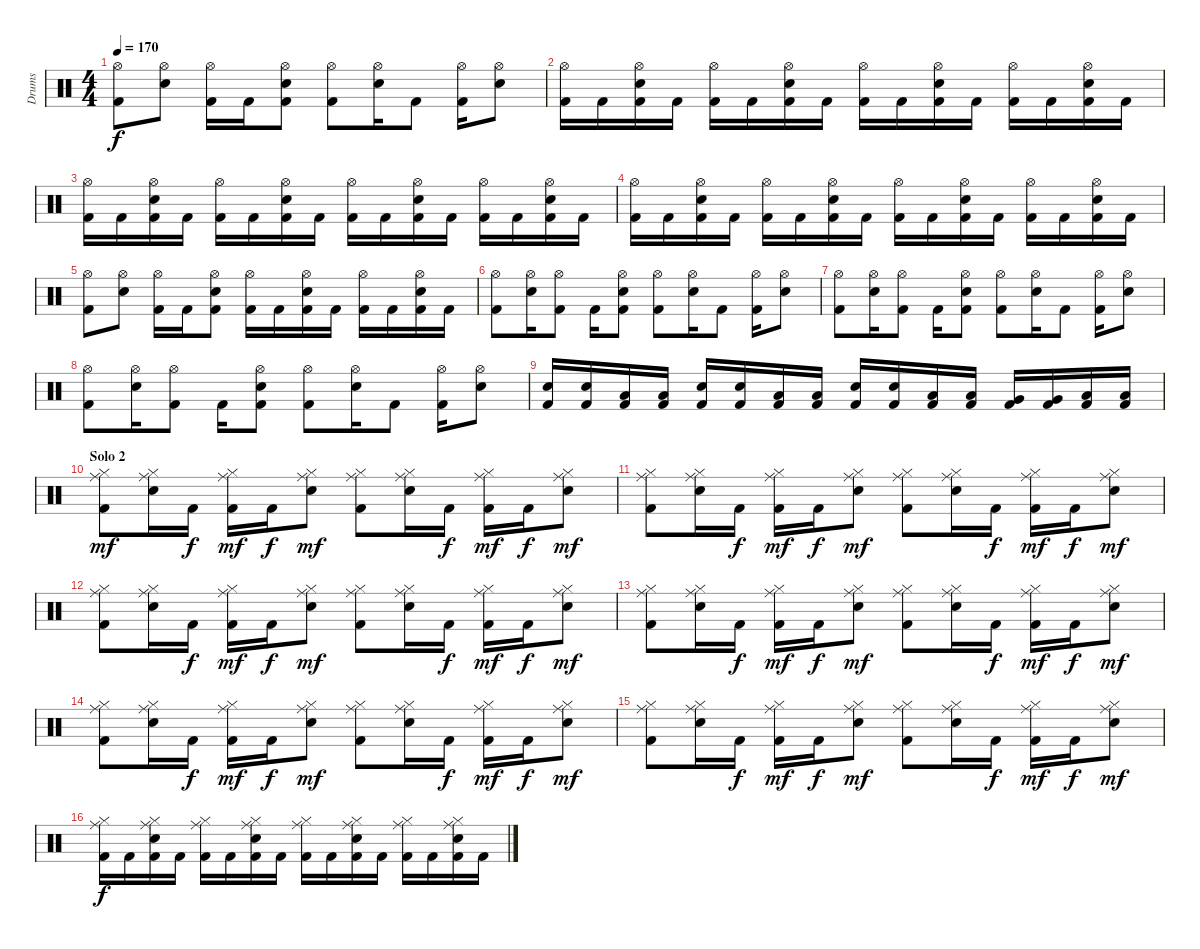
\track ("Drums" "Drums") {instrument percussion}
\staff {score}
\articulation defaults
\ts (4 4)
\tempo 170
\clef neutral
\ks c
("Hi-Hat (open)" "Kick (hit) 2").8{dy f} ("Hi-Hat (open)" "Snare (hit) 2").8 ("Hi-Hat (open)" "Kick (hit) 2").16 "Kick (hit) 2".16 ("Hi-Hat (open)" "Snare (hit) 2" "Kick (hit) 2").8 ("Hi-Hat (open)" "Kick (hit) 2").8 ("Hi-Hat (open)" "Snare (hit) 2").16 "Kick (hit) 2".8 ("Hi-Hat (open)" "Kick (hit) 2").16 ("Hi-Hat (open)" "Snare (hit) 2").8 |
("Hi-Hat (open)" "Kick (hit) 2").16 "Kick (hit) 2".16 ("Hi-Hat (open)" "Snare (hit) 2" "Kick (hit) 2").16 "Kick (hit) 2".16 ("Hi-Hat (open)" "Kick (hit) 2").16 "Kick (hit) 2".16 ("Hi-Hat (open)" "Snare (hit) 2" "Kick (hit) 2").16 "Kick (hit) 2".16 ("Hi-Hat (open)" "Kick (hit) 2").16 "Kick (hit) 2".16 ("Hi-Hat (open)" "Snare (hit) 2" "Kick (hit) 2").16 "Kick (hit) 2".16 ("Hi-Hat (open)" "Kick (hit) 2").16 "Kick (hit) 2".16 ("Hi-Hat (open)" "Snare (hit) 2" "Kick (hit) 2").16 "Kick (hit) 2".16 |
("Hi-Hat (open)" "Kick (hit) 2").16 "Kick (hit) 2".16 ("Hi-Hat (open)" "Snare (hit) 2" "Kick (hit) 2").16 "Kick (hit) 2".16 ("Hi-Hat (open)" "Kick (hit) 2").16 "Kick (hit) 2".16 ("Hi-Hat (open)" "Snare (hit) 2" "Kick (hit) 2").16 "Kick (hit) 2".16 ("Hi-Hat (open)" "Kick (hit) 2").16 "Kick (hit) 2".16 ("Hi-Hat (open)" "Snare (hit) 2" "Kick (hit) 2").16 "Kick (hit) 2".16 ("Hi-Hat (open)" "Kick (hit) 2").16 "Kick (hit) 2".16 ("Hi-Hat (open)" "Snare (hit) 2" "Kick (hit) 2").16 "Kick (hit) 2".16 |
("Hi-Hat (open)" "Kick (hit) 2").16 "Kick (hit) 2".16 ("Hi-Hat (open)" "Snare (hit) 2" "Kick (hit) 2").16 "Kick (hit) 2".16 ("Hi-Hat (open)" "Kick (hit) 2").16 "Kick (hit) 2".16 ("Hi-Hat (open)" "Snare (hit) 2" "Kick (hit) 2").16 "Kick (hit) 2".16 ("Hi-Hat (open)" "Kick (hit) 2").16 "Kick (hit) 2".16 ("Hi-Hat (open)" "Snare (hit) 2" "Kick (hit) 2").16 "Kick (hit) 2".16 ("Hi-Hat (open)" "Kick (hit) 2").16 "Kick (hit) 2".16 ("Hi-Hat (open)" "Snare (hit) 2" "Kick (hit) 2").16 "Kick (hit) 2".16 |
("Hi-Hat (open)" "Kick (hit) 2").8 ("Hi-Hat (open)" "Snare (hit) 2").8 ("Hi-Hat (open)" "Kick (hit) 2").16 "Kick (hit) 2".16 ("Hi-Hat (open)" "Snare (hit) 2" "Kick (hit) 2").8 ("Hi-Hat (open)" "Kick (hit) 2").16 "Kick (hit) 2".16 ("Hi-Hat (open)" "Snare (hit) 2" "Kick (hit) 2").16 "Kick (hit) 2".16 ("Hi-Hat (open)" "Kick (hit) 2").16 "Kick (hit) 2".16 ("Hi-Hat (open)" "Snare (hit) 2" "Kick (hit) 2").16 "Kick (hit) 2".16 |
("Hi-Hat (open)" "Kick (hit) 2").8 ("Hi-Hat (open)" "Snare (hit) 2").16 ("Hi-Hat (open)" "Kick (hit) 2").8 "Kick (hit) 2".16 ("Hi-Hat (open)" "Snare (hit) 2" "Kick (hit) 2").8 ("Hi-Hat (open)" "Kick (hit) 2").8 ("Hi-Hat (open)" "Snare (hit) 2").16 "Kick (hit) 2".8 ("Hi-Hat (open)" "Kick (hit) 2").16 ("Hi-Hat (open)" "Snare (hit) 2").8 |
("Hi-Hat (open)" "Kick (hit) 2").8 ("Hi-Hat (open)" "Snare (hit) 2").16 ("Hi-Hat (open)" "Kick (hit) 2").8 "Kick (hit) 2".16 ("Hi-Hat (open)" "Snare (hit) 2" "Kick (hit) 2").8 ("Hi-Hat (open)" "Kick (hit) 2").8 ("Hi-Hat (open)" "Snare (hit) 2").16 "Kick (hit) 2".8 ("Hi-Hat (open)" "Kick (hit) 2").16 ("Hi-Hat (open)" "Snare (hit) 2").8 |
("Hi-Hat (open)" "Kick (hit) 2").8 ("Hi-Hat (open)" "Snare (hit) 2").16 ("Hi-Hat (open)" "Kick (hit) 2").8 "Kick (hit) 2".16 ("Hi-Hat (open)" "Snare (hit) 2" "Kick (hit) 2").8 ("Hi-Hat (open)" "Kick (hit) 2").8 ("Hi-Hat (open)" "Snare (hit) 2").16 "Kick (hit) 2".8 ("Hi-Hat (open)" "Kick (hit) 2").16 ("Hi-Hat (open)" "Snare (hit) 2").8 |
("Snare (hit) 2" "Kick (hit) 2").16 ("Snare (hit) 2" "Kick (hit) 2").16 ("Low Floor Tom (hit)" "Kick (hit) 2").16 ("Low Floor Tom (hit)" "Kick (hit) 2").16 ("Snare (hit) 2" "Kick (hit) 2").16 ("Snare (hit) 2" "Kick (hit) 2").16 ("Low Floor Tom (hit)" "Kick (hit) 2").16 ("Low Floor Tom (hit)" "Kick (hit) 2").16 ("Snare (hit) 2" "Kick (hit) 2").16 ("Snare (hit) 2" "Kick (hit) 2").16 ("Low Tom (hit)" "Kick (hit) 2").16 ("Low Tom (hit)" "Kick (hit) 2").16 ("Very Low Tom (hit)" "Kick (hit) 2").16 ("Very Low Tom (hit)" "Kick (hit) 2").16 ("Low Floor Tom (hit)" "Kick (hit) 2").16 ("Low Floor Tom (hit)" "Kick (hit) 2").16 |
\section ("" "Solo 2")
("Hi-Hat (closed)" "Ride (middle)" "Kick (hit) 2").8{dy mf} ("Hi-Hat (closed)" "Ride (middle)" "Snare (hit) 2").16 "Kick (hit) 2".16{dy f} ("Hi-Hat (closed)" "Ride (middle)" "Kick (hit) 2").16{dy mf} "Kick (hit) 2".16{dy f} ("Hi-Hat (closed)" "Ride (middle)" "Snare (hit) 2").8{dy mf} ("Hi-Hat (closed)" "Ride (middle)" "Kick (hit) 2").8 ("Hi-Hat (closed)" "Ride (middle)" "Snare (hit) 2").16 "Kick (hit) 2".16{dy f} ("Hi-Hat (closed)" "Ride (middle)" "Kick (hit) 2").16{dy mf} "Kick (hit) 2".16{dy f} ("Hi-Hat (closed)" "Ride (middle)" "Snare (hit) 2").8{dy mf} |
("Hi-Hat (closed)" "Ride (middle)" "Kick (hit) 2").8 ("Hi-Hat (closed)" "Ride (middle)" "Snare (hit) 2").16 "Kick (hit) 2".16{dy f} ("Hi-Hat (closed)" "Ride (middle)" "Kick (hit) 2").16{dy mf} "Kick (hit) 2".16{dy f} ("Hi-Hat (closed)" "Ride (middle)" "Snare (hit) 2").8{dy mf} ("Hi-Hat (closed)" "Ride (middle)" "Kick (hit) 2").8 ("Hi-Hat (closed)" "Ride (middle)" "Snare (hit) 2").16 "Kick (hit) 2".16{dy f} ("Hi-Hat (closed)" "Ride (middle)" "Kick (hit) 2").16{dy mf} "Kick (hit) 2".16{dy f} ("Hi-Hat (closed)" "Ride (middle)" "Snare (hit) 2").8{dy mf} |
("Hi-Hat (closed)" "Ride (middle)" "Kick (hit) 2").8 ("Hi-Hat (closed)" "Ride (middle)" "Snare (hit) 2").16 "Kick (hit) 2".16{dy f} ("Hi-Hat (closed)" "Ride (middle)" "Kick (hit) 2").16{dy mf} "Kick (hit) 2".16{dy f} ("Hi-Hat (closed)" "Ride (middle)" "Snare (hit) 2").8{dy mf} ("Hi-Hat (closed)" "Ride (middle)" "Kick (hit) 2").8 ("Hi-Hat (closed)" "Ride (middle)" "Snare (hit) 2").16 "Kick (hit) 2".16{dy f} ("Hi-Hat (closed)" "Ride (middle)" "Kick (hit) 2").16{dy mf} "Kick (hit) 2".16{dy f} ("Hi-Hat (closed)" "Ride (middle)" "Snare (hit) 2").8{dy mf} |
("Hi-Hat (closed)" "Ride (middle)" "Kick (hit) 2").8 ("Hi-Hat (closed)" "Ride (middle)" "Snare (hit) 2").16 "Kick (hit) 2".16{dy f} ("Hi-Hat (closed)" "Ride (middle)" "Kick (hit) 2").16{dy mf} "Kick (hit) 2".16{dy f} ("Hi-Hat (closed)" "Ride (middle)" "Snare (hit) 2").8{dy mf} ("Hi-Hat (closed)" "Ride (middle)" "Kick (hit) 2").8 ("Hi-Hat (closed)" "Ride (middle)" "Snare (hit) 2").16 "Kick (hit) 2".16{dy f} ("Hi-Hat (closed)" "Ride (middle)" "Kick (hit) 2").16{dy mf} "Kick (hit) 2".16{dy f} ("Hi-Hat (closed)" "Ride (middle)" "Snare (hit) 2").8{dy mf} |
("Hi-Hat (closed)" "Ride (middle)" "Kick (hit) 2").8 ("Hi-Hat (closed)" "Ride (middle)" "Snare (hit) 2").16 "Kick (hit) 2".16{dy f} ("Hi-Hat (closed)" "Ride (middle)" "Kick (hit) 2").16{dy mf} "Kick (hit) 2".16{dy f} ("Hi-Hat (closed)" "Ride (middle)" "Snare (hit) 2").8{dy mf} ("Hi-Hat (closed)" "Ride (middle)" "Kick (hit) 2").8 ("Hi-Hat (closed)" "Ride (middle)" "Snare (hit) 2").16 "Kick (hit) 2".16{dy f} ("Hi-Hat (closed)" "Ride (middle)" "Kick (hit) 2").16{dy mf} "Kick (hit) 2".16{dy f} ("Hi-Hat (closed)" "Ride (middle)" "Snare (hit) 2").8{dy mf} |
("Hi-Hat (closed)" "Ride (middle)" "Kick (hit) 2").8 ("Hi-Hat (closed)" "Ride (middle)" "Snare (hit) 2").16 "Kick (hit) 2".16{dy f} ("Hi-Hat (closed)" "Ride (middle)" "Kick (hit) 2").16{dy mf} "Kick (hit) 2".16{dy f} ("Hi-Hat (closed)" "Ride (middle)" "Snare (hit) 2").8{dy mf} ("Hi-Hat (closed)" "Ride (middle)" "Kick (hit) 2").8 ("Hi-Hat (closed)" "Ride (middle)" "Snare (hit) 2").16 "Kick (hit) 2".16{dy f} ("Hi-Hat (closed)" "Ride (middle)" "Kick (hit) 2").16{dy mf} "Kick (hit) 2".16{dy f} ("Hi-Hat (closed)" "Ride (middle)" "Snare (hit) 2").8{dy mf} |
("Hi-Hat (closed)" "Ride (middle)" "Kick (hit) 2").16{dy f} "Kick (hit) 2".16 ("Hi-Hat (closed)" "Ride (middle)" "Snare (hit) 2" "Kick (hit) 2").16 "Kick (hit) 2".16 ("Hi-Hat (closed)" "Ride (middle)" "Kick (hit) 2").16 "Kick (hit) 2".16 ("Hi-Hat (closed)" "Ride (middle)" "Snare (hit) 2" "Kick (hit) 2").16 "Kick (hit) 2".16 ("Hi-Hat (closed)" "Ride (middle)" "Kick (hit) 2").16 "Kick (hit) 2".16 ("Hi-Hat (closed)" "Ride (middle)" "Snare (hit) 2" "Kick (hit) 2").16 "Kick (hit) 2".16 ("Hi-Hat (closed)" "Ride (middle)" "Kick (hit) 2").16 "Kick (hit) 2".16 ("Hi-Hat (closed)" "Ride (middle)" "Snare (hit) 2" "Kick (hit) 2").16 "Kick (hit) 2".16
